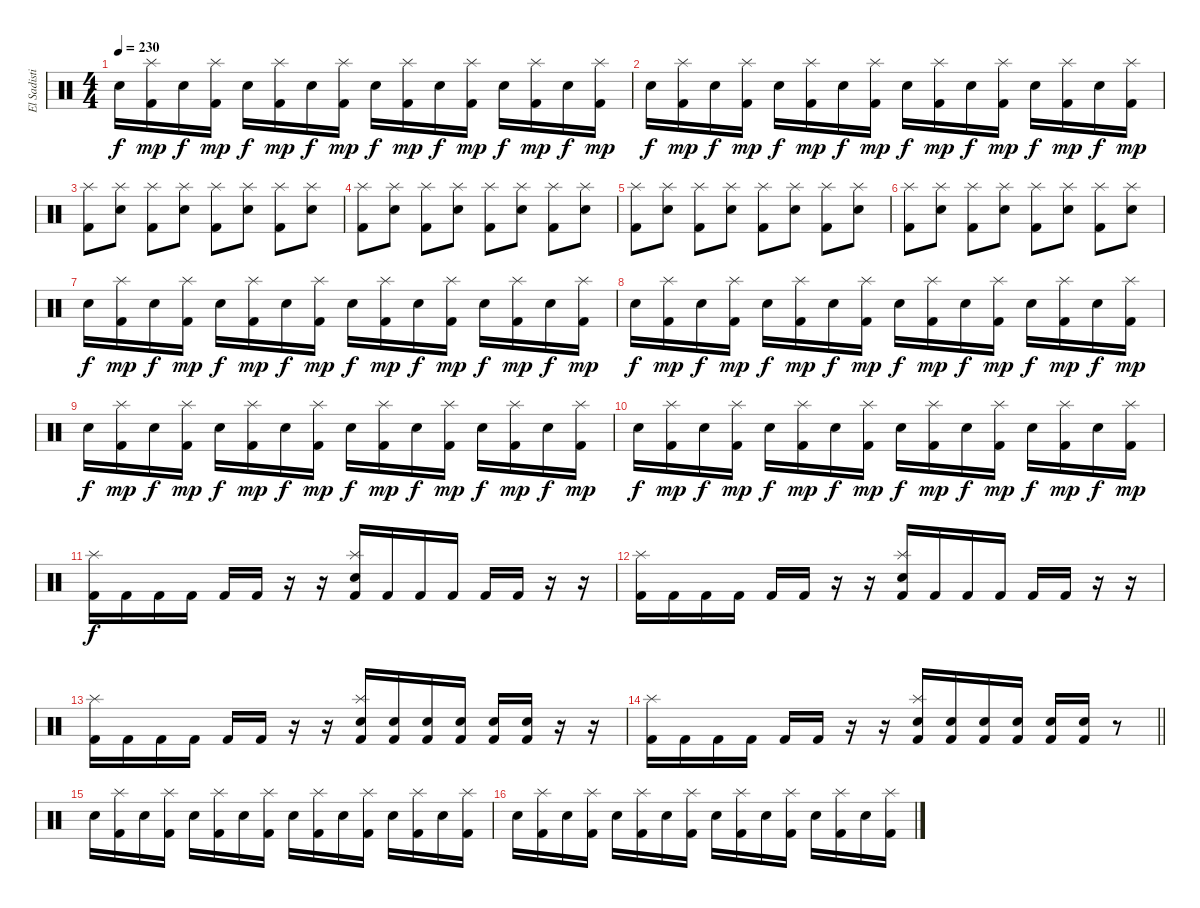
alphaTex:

\track ("El Sadistico" "El Sadisti") {instrument percussion}
\staff {score}
\articulation defaults
\ts (4 4)
\tempo 230
\clef neutral
\ks c "Electric Snare (hit)".16{dy f}
("Splash (hit)" "Kick (hit) 2").16{dy mp} "Electric Snare (hit)".16{dy f} ("Splash (hit)" "Kick (hit) 2").16{dy mp} "Electric Snare (hit)".16{dy f} ("Splash (hit)" "Kick (hit) 2").16{dy mp} "Electric Snare (hit)".16{dy f} ("Splash (hit)" "Kick (hit) 2").16{dy mp} "Electric Snare (hit)".16{dy f} ("Splash (hit)" "Kick (hit) 2").16{dy mp} "Electric Snare (hit)".16{dy f} ("Splash (hit)" "Kick (hit) 2").16{dy mp} "Electric Snare (hit)".16{dy f} ("Splash (hit)" "Kick (hit) 2").16{dy mp} "Electric Snare (hit)".16{dy f} ("Splash (hit)" "Kick (hit) 2").16{dy mp} |
"Electric Snare (hit)".16{dy f} ("Splash (hit)" "Kick (hit) 2").16{dy mp} "Electric Snare (hit)".16{dy f} ("Splash (hit)" "Kick (hit) 2").16{dy mp} "Electric Snare (hit)".16{dy f} ("Splash (hit)" "Kick (hit) 2").16{dy mp} "Electric Snare (hit)".16{dy f} ("Splash (hit)" "Kick (hit) 2").16{dy mp} "Electric Snare (hit)".16{dy f} ("Splash (hit)" "Kick (hit) 2").16{dy mp} "Electric Snare (hit)".16{dy f} ("Splash (hit)" "Kick (hit) 2").16{dy mp} "Electric Snare (hit)".16{dy f} ("Splash (hit)" "Kick (hit) 2").16{dy mp} "Electric Snare (hit)".16{dy f} ("Splash (hit)" "Kick (hit) 2").16{dy mp} |
("Splash (hit)" "Kick (hit) 2").8 ("Splash (hit)" "Electric Snare (hit)").8 ("Splash (hit)" "Kick (hit) 2").8 ("Splash (hit)" "Electric Snare (hit)").8 ("Splash (hit)" "Kick (hit) 2").8 ("Splash (hit)" "Electric Snare (hit)").8 ("Splash (hit)" "Kick (hit) 2").8 ("Splash (hit)" "Electric Snare (hit)").8 |
("Splash (hit)" "Kick (hit) 2").8 ("Splash (hit)" "Electric Snare (hit)").8 ("Splash (hit)" "Kick (hit) 2").8 ("Splash (hit)" "Electric Snare (hit)").8 ("Splash (hit)" "Kick (hit) 2").8 ("Splash (hit)" "Electric Snare (hit)").8 ("Splash (hit)" "Kick (hit) 2").8 ("Splash (hit)" "Electric Snare (hit)").8 |
("Splash (hit)" "Kick (hit) 2").8 ("Splash (hit)" "Electric Snare (hit)").8 ("Splash (hit)" "Kick (hit) 2").8 ("Splash (hit)" "Electric Snare (hit)").8 ("Splash (hit)" "Kick (hit) 2").8 ("Splash (hit)" "Electric Snare (hit)").8 ("Splash (hit)" "Kick (hit) 2").8 ("Splash (hit)" "Electric Snare (hit)").8 |
("Splash (hit)" "Kick (hit) 2").8 ("Splash (hit)" "Electric Snare (hit)").8 ("Splash (hit)" "Kick (hit) 2").8 ("Splash (hit)" "Electric Snare (hit)").8 ("Splash (hit)" "Kick (hit) 2").8 ("Splash (hit)" "Electric Snare (hit)").8 ("Splash (hit)" "Kick (hit) 2").8 ("Splash (hit)" "Electric Snare (hit)").8 |
"Electric Snare (hit)".16{dy f} ("Splash (hit)" "Kick (hit) 2").16{dy mp} "Electric Snare (hit)".16{dy f} ("Splash (hit)" "Kick (hit) 2").16{dy mp} "Electric Snare (hit)".16{dy f} ("Splash (hit)" "Kick (hit) 2").16{dy mp} "Electric Snare (hit)".16{dy f} ("Splash (hit)" "Kick (hit) 2").16{dy mp} "Electric Snare (hit)".16{dy f} ("Splash (hit)" "Kick (hit) 2").16{dy mp} "Electric Snare (hit)".16{dy f} ("Splash (hit)" "Kick (hit) 2").16{dy mp} "Electric Snare (hit)".16{dy f} ("Splash (hit)" "Kick (hit) 2").16{dy mp} "Electric Snare (hit)".16{dy f} ("Splash (hit)" "Kick (hit) 2").16{dy mp} |
"Electric Snare (hit)".16{dy f} ("Splash (hit)" "Kick (hit) 2").16{dy mp} "Electric Snare (hit)".16{dy f} ("Splash (hit)" "Kick (hit) 2").16{dy mp} "Electric Snare (hit)".16{dy f} ("Splash (hit)" "Kick (hit) 2").16{dy mp} "Electric Snare (hit)".16{dy f} ("Splash (hit)" "Kick (hit) 2").16{dy mp} "Electric Snare (hit)".16{dy f} ("Splash (hit)" "Kick (hit) 2").16{dy mp} "Electric Snare (hit)".16{dy f} ("Splash (hit)" "Kick (hit) 2").16{dy mp} "Electric Snare (hit)".16{dy f} ("Splash (hit)" "Kick (hit) 2").16{dy mp} "Electric Snare (hit)".16{dy f} ("Splash (hit)" "Kick (hit) 2").16{dy mp} |
"Electric Snare (hit)".16{dy f} ("Splash (hit)" "Kick (hit) 2").16{dy mp} "Electric Snare (hit)".16{dy f} ("Splash (hit)" "Kick (hit) 2").16{dy mp} "Electric Snare (hit)".16{dy f} ("Splash (hit)" "Kick (hit) 2").16{dy mp} "Electric Snare (hit)".16{dy f} ("Splash (hit)" "Kick (hit) 2").16{dy mp} "Electric Snare (hit)".16{dy f} ("Splash (hit)" "Kick (hit) 2").16{dy mp} "Electric Snare (hit)".16{dy f} ("Splash (hit)" "Kick (hit) 2").16{dy mp} "Electric Snare (hit)".16{dy f} ("Splash (hit)" "Kick (hit) 2").16{dy mp} "Electric Snare (hit)".16{dy f} ("Splash (hit)" "Kick (hit) 2").16{dy mp} |
"Electric Snare (hit)".16{dy f} ("Splash (hit)" "Kick (hit) 2").16{dy mp} "Electric Snare (hit)".16{dy f} ("Splash (hit)" "Kick (hit) 2").16{dy mp} "Electric Snare (hit)".16{dy f} ("Splash (hit)" "Kick (hit) 2").16{dy mp} "Electric Snare (hit)".16{dy f} ("Splash (hit)" "Kick (hit) 2").16{dy mp} "Electric Snare (hit)".16{dy f} ("Splash (hit)" "Kick (hit) 2").16{dy mp} "Electric Snare (hit)".16{dy f} ("Splash (hit)" "Kick (hit) 2").16{dy mp} "Electric Snare (hit)".16{dy f} ("Splash (hit)" "Kick (hit) 2").16{dy mp} "Electric Snare (hit)".16{dy f} ("Splash (hit)" "Kick (hit) 2").16{dy mp} |
("Splash (hit)" "Kick (hit) 2").16{dy f} "Kick (hit) 2".16 "Kick (hit) 2".16 "Kick (hit) 2".16 "Kick (hit) 2".16 "Kick (hit) 2".16 r.16 r.16 ("Splash (hit)" "Electric Snare (hit)" "Kick (hit) 2").16 "Kick (hit) 2".16 "Kick (hit) 2".16 "Kick (hit) 2".16 "Kick (hit) 2".16 "Kick (hit) 2".16 r.16 r.16 |
("Splash (hit)" "Kick (hit) 2").16 "Kick (hit) 2".16 "Kick (hit) 2".16 "Kick (hit) 2".16 "Kick (hit) 2".16 "Kick (hit) 2".16 r.16 r.16 ("Splash (hit)" "Electric Snare (hit)" "Kick (hit) 2").16 "Kick (hit) 2".16 "Kick (hit) 2".16 "Kick (hit) 2".16 "Kick (hit) 2".16 "Kick (hit) 2".16 r.16 r.16 |
("Splash (hit)" "Kick (hit) 2").16 "Kick (hit) 2".16 "Kick (hit) 2".16 "Kick (hit) 2".16 "Kick (hit) 2".16 "Kick (hit) 2".16 r.16 r.16 ("Splash (hit)" "Electric Snare (hit)" "Kick (hit) 2").16 ("Electric Snare (hit)" "Kick (hit) 2").16 ("Electric Snare (hit)" "Kick (hit) 2").16 ("Electric Snare (hit)" "Kick (hit) 2").16 ("Electric Snare (hit)" "Kick (hit) 2").16 ("Electric Snare (hit)" "Kick (hit) 2").16 r.16 r.16 |
\barLineRight lightlight
("Splash (hit)" "Kick (hit) 2").16 "Kick (hit) 2".16 "Kick (hit) 2".16 "Kick (hit) 2".16 "Kick (hit) 2".16 "Kick (hit) 2".16 r.16 r.16 ("Splash (hit)" "Electric Snare (hit)" "Kick (hit) 2").16 ("Electric Snare (hit)" "Kick (hit) 2").16 ("Electric Snare (hit)" "Kick (hit) 2").16 ("Electric Snare (hit)" "Kick (hit) 2").16 ("Electric Snare (hit)" "Kick (hit) 2").16 ("Electric Snare (hit)" "Kick (hit) 2").16 r.8 |
"Electric Snare (hit)".16 ("Splash (hit)" "Kick (hit) 2").16 "Electric Snare (hit)".16 ("Splash (hit)" "Kick (hit) 2").16 "Electric Snare (hit)".16 ("Splash (hit)" "Kick (hit) 2").16 "Electric Snare (hit)".16 ("Splash (hit)" "Kick (hit) 2").16 "Electric Snare (hit)".16 ("Splash (hit)" "Kick (hit) 2").16 "Electric Snare (hit)".16 ("Splash (hit)" "Kick (hit) 2").16 "Electric Snare (hit)".16 ("Splash (hit)" "Kick (hit) 2").16 "Electric Snare (hit)".16 ("Splash (hit)" "Kick (hit) 2").16 |
"Electric Snare (hit)".16 ("Splash (hit)" "Kick (hit) 2").16 "Electric Snare (hit)".16 ("Splash (hit)" "Kick (hit) 2").16 "Electric Snare (hit)".16 ("Splash (hit)" "Kick (hit) 2").16 "Electric Snare (hit)".16 ("Splash (hit)" "Kick (hit) 2").16 "Electric Snare (hit)".16 ("Splash (hit)" "Kick (hit) 2").16 "Electric Snare (hit)".16 ("Splash (hit)" "Kick (hit) 2").16 "Electric Snare (hit)".16 ("Splash (hit)" "Kick (hit) 2").16 "Electric Snare (hit)".16 ("Splash (hit)" "Kick (hit) 2").16
